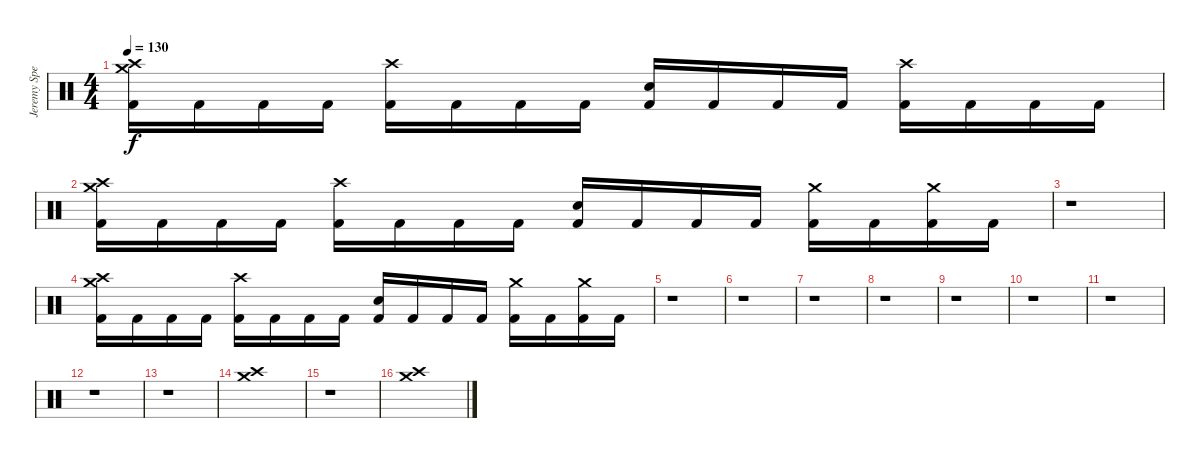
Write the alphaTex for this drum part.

\track ("Jeremy Spencer" "Jeremy Spe") {instrument percussion}
\staff {score}
\articulation defaults
\ts (4 4)
\tempo 130
\clef neutral
\ks c
("Crash high (hit)" "Crash medium (hit)" "Kick (hit) 2").16{dy f} "Kick (hit) 2".16 "Kick (hit) 2".16 "Kick (hit) 2".16 ("Crash high (hit)" "Kick (hit) 2").16 "Kick (hit) 2".16 "Kick (hit) 2".16 "Kick (hit) 2".16 ("Snare (hit) 2" "Kick (hit) 2").16 "Kick (hit) 2".16 "Kick (hit) 2".16 "Kick (hit) 2".16 ("Crash high (hit)" "Kick (hit) 2").16 "Kick (hit) 2".16 "Kick (hit) 2".16 "Kick (hit) 2".16 |
("Crash high (hit)" "Crash medium (hit)" "Kick (hit) 2").16 "Kick (hit) 2".16 "Kick (hit) 2".16 "Kick (hit) 2".16 ("Crash high (hit)" "Kick (hit) 2").16 "Kick (hit) 2".16 "Kick (hit) 2".16 "Kick (hit) 2".16 ("Snare (hit) 2" "Kick (hit) 2").16 "Kick (hit) 2".16 "Kick (hit) 2".16 "Kick (hit) 2".16 ("Crash medium (hit)" "Kick (hit) 2").16 "Kick (hit) 2".16 ("Crash medium (hit)" "Kick (hit) 2").16 "Kick (hit) 2".16 |
r.1 |
("Crash high (hit)" "Crash medium (hit)" "Kick (hit) 2").16 "Kick (hit) 2".16 "Kick (hit) 2".16 "Kick (hit) 2".16 ("Crash high (hit)" "Kick (hit) 2").16 "Kick (hit) 2".16 "Kick (hit) 2".16 "Kick (hit) 2".16 ("Snare (hit) 2" "Kick (hit) 2").16 "Kick (hit) 2".16 "Kick (hit) 2".16 "Kick (hit) 2".16 ("Crash medium (hit)" "Kick (hit) 2").16 "Kick (hit) 2".16 ("Crash medium (hit)" "Kick (hit) 2").16 "Kick (hit) 2".16 |
r.1 |
r.1 |
r.1 |
r.1 |
r.1 |
r.1 |
r.1 |
r.1 |
r.1 |
("Crash medium (hit)" "Crash high (hit)").1 |
r.1 |
("Crash medium (hit)" "Crash high (hit)").1
